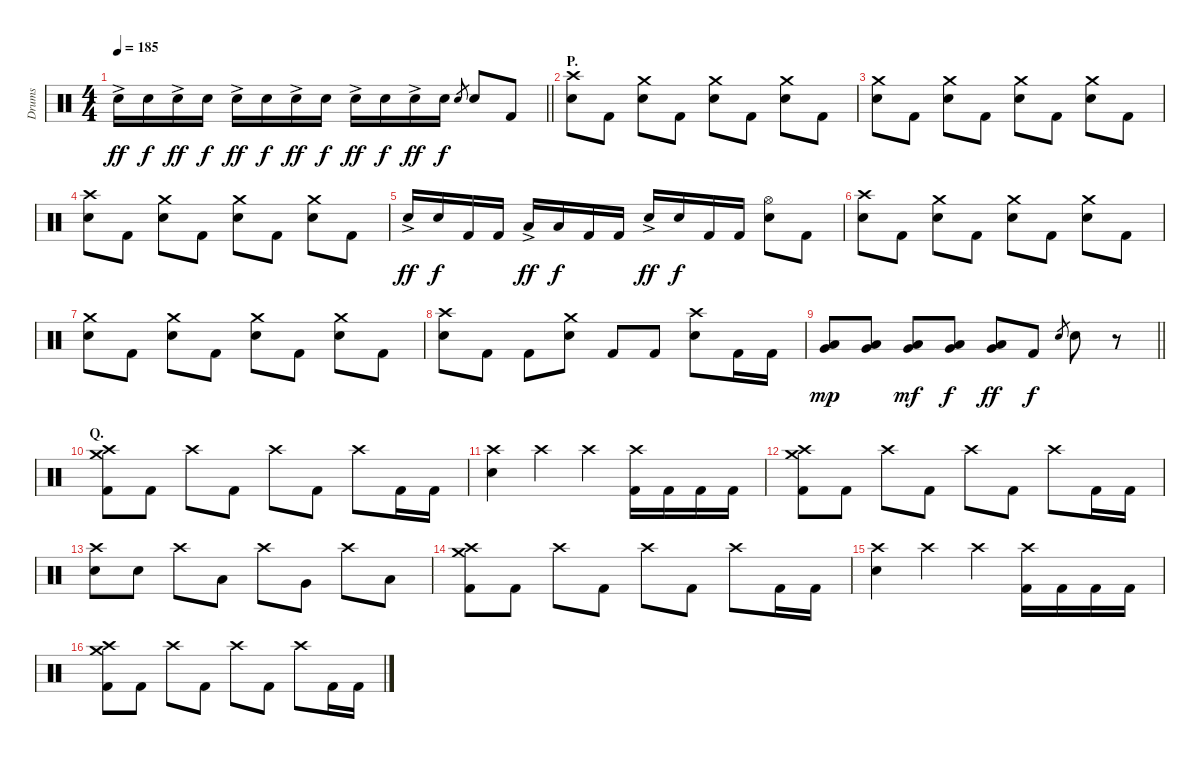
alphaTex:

\track ("Drums" "Drums") {instrument percussion}
\staff {score}
\articulation defaults
\ts (4 4)
\tempo 185
\clef neutral
\barLineRight lightlight
\ks c "Electric Snare (hit)"{ac}.16{dy ff} "Electric Snare (hit)".16{dy f} "Electric Snare (hit)"{ac}.16{dy ff} "Electric Snare (hit)".16{dy f} "Electric Snare (hit)"{ac}.16{dy ff} "Electric Snare (hit)".16{dy f} "Electric Snare (hit)"{ac}.16{dy ff} "Electric Snare (hit)".16{dy f} "Electric Snare (hit)"{ac}.16{dy ff} "Electric Snare (hit)".16{dy f} "Electric Snare (hit)"{ac}.16{dy ff} "Electric Snare (hit)".16{dy f} "Electric Snare (hit)".8{gr} "Electric Snare (hit)".8 "Kick (hit) 2".8
|
\section ("" "P.")
("Crash high (hit)" "Electric Snare (hit)").8 "Kick (hit) 2".8 ("Crash medium (hit)" "Electric Snare (hit)").8 "Kick (hit) 2".8 ("Crash medium (hit)" "Electric Snare (hit)").8 "Kick (hit) 2".8 ("Crash medium (hit)" "Electric Snare (hit)").8 "Kick (hit) 2".8 |
("Crash medium (hit)" "Electric Snare (hit)").8 "Kick (hit) 2".8 ("Crash medium (hit)" "Electric Snare (hit)").8 "Kick (hit) 2".8 ("Crash medium (hit)" "Electric Snare (hit)").8 "Kick (hit) 2".8 ("Crash medium (hit)" "Electric Snare (hit)").8 "Kick (hit) 2".8 |
("Crash high (hit)" "Electric Snare (hit)").8 "Kick (hit) 2".8 ("Crash medium (hit)" "Electric Snare (hit)").8 "Kick (hit) 2".8 ("Crash medium (hit)" "Electric Snare (hit)").8 "Kick (hit) 2".8 ("Crash medium (hit)" "Electric Snare (hit)").8 "Kick (hit) 2".8 |
"Electric Snare (hit)"{ac}.16{dy ff} "Electric Snare (hit)".16{dy f} "Kick (hit) 2".16 "Kick (hit) 2".16 "Low Tom (hit)"{ac}.16{dy ff} "Low Tom (hit)".16{dy f} "Kick (hit) 2".16 "Kick (hit) 2".16 "Electric Snare (hit)"{ac}.16{dy ff} "Electric Snare (hit)".16{dy f} "Kick (hit) 2".16 "Kick (hit) 2".16 ("Hi-Hat (open)" "Electric Snare (hit)").8 "Kick (hit) 2".8 |
("Crash high (hit)" "Electric Snare (hit)").8 "Kick (hit) 2".8 ("Crash medium (hit)" "Electric Snare (hit)").8 "Kick (hit) 2".8 ("Crash medium (hit)" "Electric Snare (hit)").8 "Kick (hit) 2".8 ("Crash medium (hit)" "Electric Snare (hit)").8 "Kick (hit) 2".8 |
("Crash medium (hit)" "Electric Snare (hit)").8 "Kick (hit) 2".8 ("Crash medium (hit)" "Electric Snare (hit)").8 "Kick (hit) 2".8 ("Crash medium (hit)" "Electric Snare (hit)").8 "Kick (hit) 2".8 ("Crash medium (hit)" "Electric Snare (hit)").8 "Kick (hit) 2".8 |
("Crash high (hit)" "Electric Snare (hit)").8 "Kick (hit) 2".8 "Kick (hit) 2".8 ("Crash medium (hit)" "Electric Snare (hit)").8 "Kick (hit) 2".8 "Kick (hit) 2".8 ("Crash high (hit)" "Electric Snare (hit)").8 "Kick (hit) 2".16 "Kick (hit) 2".16 |
\barLineRight lightlight
("Very Low Tom (hit)" "Low Floor Tom (hit)").8{dy mp} ("Very Low Tom (hit)" "Low Floor Tom (hit)").8 ("Very Low Tom (hit)" "Low Floor Tom (hit)").8{dy mf} ("Very Low Tom (hit)" "Low Floor Tom (hit)").8{dy f} ("Very Low Tom (hit)" "Low Floor Tom (hit)").8{dy ff} "Kick (hit) 2".8{dy f} "Electric Snare (hit)".8{gr} "Electric Snare (hit)".8 r.8 |
\section ("" "Q.")
("Crash medium (hit)" "Crash high (hit)" "Kick (hit) 2").8 "Kick (hit) 2".8 "Crash high (hit)".8 "Kick (hit) 2".8 "Crash high (hit)".8 "Kick (hit) 2".8 "Crash high (hit)".8 "Kick (hit) 2".16 "Kick (hit) 2".16 |
("Crash high (hit)" "Electric Snare (hit)").4 "Crash high (hit)".4 "Crash high (hit)".4 ("Crash high (hit)" "Kick (hit) 2").16 "Kick (hit) 2".16 "Kick (hit) 2".16 "Kick (hit) 2".16 |
("Crash medium (hit)" "Crash high (hit)" "Kick (hit) 2").8 "Kick (hit) 2".8 "Crash high (hit)".8 "Kick (hit) 2".8 "Crash high (hit)".8 "Kick (hit) 2".8 "Crash high (hit)".8 "Kick (hit) 2".16 "Kick (hit) 2".16 |
("Crash high (hit)" "Electric Snare (hit)").8 "Electric Snare (hit)".8 "Crash high (hit)".8 "Low Tom (hit)".8 "Crash high (hit)".8 "Very Low Tom (hit)".8 "Crash high (hit)".8 "Low Tom (hit)".8 |
("Crash medium (hit)" "Crash high (hit)" "Kick (hit) 2").8 "Kick (hit) 2".8 "Crash high (hit)".8 "Kick (hit) 2".8 "Crash high (hit)".8 "Kick (hit) 2".8 "Crash high (hit)".8 "Kick (hit) 2".16 "Kick (hit) 2".16 |
("Crash high (hit)" "Electric Snare (hit)").4 "Crash high (hit)".4 "Crash high (hit)".4 ("Crash high (hit)" "Kick (hit) 2").16 "Kick (hit) 2".16 "Kick (hit) 2".16 "Kick (hit) 2".16 |
("Crash medium (hit)" "Crash high (hit)" "Kick (hit) 2").8 "Kick (hit) 2".8 "Crash high (hit)".8 "Kick (hit) 2".8 "Crash high (hit)".8 "Kick (hit) 2".8 "Crash high (hit)".8 "Kick (hit) 2".16 "Kick (hit) 2".16
